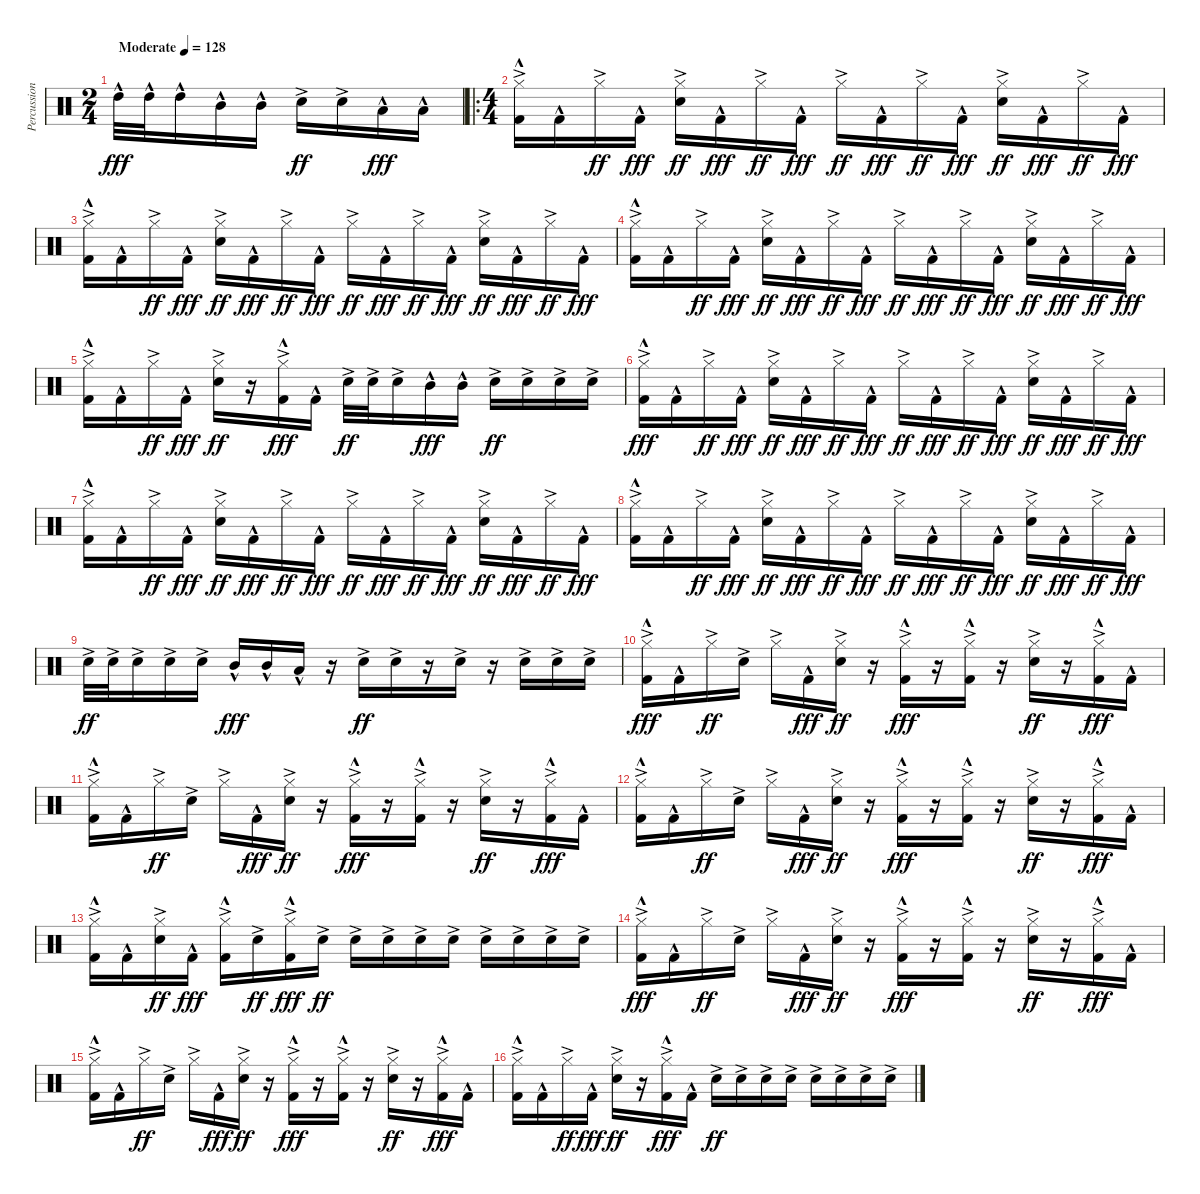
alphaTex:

\track ("Percussion" "Percussion") {instrument percussion}
\staff {score}
\articulation defaults
\ts (2 4)
\tempo (128 "Moderate")
\clef neutral
\ks c "High Tom (hit)"{hac}.32{dy fff} "High Tom (hit)"{hac}.32 "High Tom (hit)"{hac}.16 "Mid Tom (hit)"{hac}.16 "Mid Tom (hit)"{hac}.16 "Snare (hit) 2"{ac}.16{dy ff} "Snare (hit) 2"{ac}.16 "Low Tom (hit)"{hac}.16{dy fff} "Low Tom (hit)"{hac}.16
|
\ro
\ts (4 4)
("Hi-Hat (closed)"{ac} "Kick (hit) 2"{hac}).16 "Kick (hit) 2"{hac}.16 "Hi-Hat (closed)"{ac}.16{dy ff} "Kick (hit) 2"{hac}.16{dy fff} ("Hi-Hat (closed)"{ac} "Snare (hit) 2"{ac}).16{dy ff} "Kick (hit) 2"{hac}.16{dy fff} "Hi-Hat (closed)"{ac}.16{dy ff} "Kick (hit) 2"{hac}.16{dy fff} "Hi-Hat (closed)"{ac}.16{dy ff} "Kick (hit) 2"{hac}.16{dy fff} "Hi-Hat (closed)"{ac}.16{dy ff} "Kick (hit) 2"{hac}.16{dy fff} ("Hi-Hat (closed)"{ac} "Snare (hit) 2"{ac}).16{dy ff} "Kick (hit) 2"{hac}.16{dy fff} "Hi-Hat (closed)"{ac}.16{dy ff} "Kick (hit) 2"{hac}.16{dy fff} |
("Hi-Hat (closed)"{ac} "Kick (hit) 2"{hac}).16 "Kick (hit) 2"{hac}.16 "Hi-Hat (closed)"{ac}.16{dy ff} "Kick (hit) 2"{hac}.16{dy fff} ("Hi-Hat (closed)"{ac} "Snare (hit) 2"{ac}).16{dy ff} "Kick (hit) 2"{hac}.16{dy fff} "Hi-Hat (closed)"{ac}.16{dy ff} "Kick (hit) 2"{hac}.16{dy fff} "Hi-Hat (closed)"{ac}.16{dy ff} "Kick (hit) 2"{hac}.16{dy fff} "Hi-Hat (closed)"{ac}.16{dy ff} "Kick (hit) 2"{hac}.16{dy fff} ("Hi-Hat (closed)"{ac} "Snare (hit) 2"{ac}).16{dy ff} "Kick (hit) 2"{hac}.16{dy fff} "Hi-Hat (closed)"{ac}.16{dy ff} "Kick (hit) 2"{hac}.16{dy fff} |
("Hi-Hat (closed)"{ac} "Kick (hit) 2"{hac}).16 "Kick (hit) 2"{hac}.16 "Hi-Hat (closed)"{ac}.16{dy ff} "Kick (hit) 2"{hac}.16{dy fff} ("Hi-Hat (closed)"{ac} "Snare (hit) 2"{ac}).16{dy ff} "Kick (hit) 2"{hac}.16{dy fff} "Hi-Hat (closed)"{ac}.16{dy ff} "Kick (hit) 2"{hac}.16{dy fff} "Hi-Hat (closed)"{ac}.16{dy ff} "Kick (hit) 2"{hac}.16{dy fff} "Hi-Hat (closed)"{ac}.16{dy ff} "Kick (hit) 2"{hac}.16{dy fff} ("Hi-Hat (closed)"{ac} "Snare (hit) 2"{ac}).16{dy ff} "Kick (hit) 2"{hac}.16{dy fff} "Hi-Hat (closed)"{ac}.16{dy ff} "Kick (hit) 2"{hac}.16{dy fff} |
("Hi-Hat (closed)"{ac} "Kick (hit) 2"{hac}).16 "Kick (hit) 2"{hac}.16 "Hi-Hat (closed)"{ac}.16{dy ff} "Kick (hit) 2"{hac}.16{dy fff} ("Hi-Hat (closed)"{ac} "Snare (hit) 2"{ac}).16{dy ff} r.16 ("Hi-Hat (closed)"{ac} "Kick (hit) 2"{hac}).16{dy fff} "Kick (hit) 2"{hac}.16 "Snare (hit) 2"{ac}.32{dy ff} "Snare (hit) 2"{ac}.32 "Snare (hit) 2"{ac}.16 "Mid Tom (hit)"{hac}.16{dy fff} "Mid Tom (hit)"{hac}.16 "Snare (hit) 2"{ac}.16{dy ff} "Snare (hit) 2"{ac}.16 "Snare (hit) 2"{ac}.16 "Snare (hit) 2"{ac}.16 |
("Hi-Hat (closed)"{ac} "Kick (hit) 2"{hac}).16{dy fff} "Kick (hit) 2"{hac}.16 "Hi-Hat (closed)"{ac}.16{dy ff} "Kick (hit) 2"{hac}.16{dy fff} ("Hi-Hat (closed)"{ac} "Snare (hit) 2"{ac}).16{dy ff} "Kick (hit) 2"{hac}.16{dy fff} "Hi-Hat (closed)"{ac}.16{dy ff} "Kick (hit) 2"{hac}.16{dy fff} "Hi-Hat (closed)"{ac}.16{dy ff} "Kick (hit) 2"{hac}.16{dy fff} "Hi-Hat (closed)"{ac}.16{dy ff} "Kick (hit) 2"{hac}.16{dy fff} ("Hi-Hat (closed)"{ac} "Snare (hit) 2"{ac}).16{dy ff} "Kick (hit) 2"{hac}.16{dy fff} "Hi-Hat (closed)"{ac}.16{dy ff} "Kick (hit) 2"{hac}.16{dy fff} |
("Hi-Hat (closed)"{ac} "Kick (hit) 2"{hac}).16 "Kick (hit) 2"{hac}.16 "Hi-Hat (closed)"{ac}.16{dy ff} "Kick (hit) 2"{hac}.16{dy fff} ("Hi-Hat (closed)"{ac} "Snare (hit) 2"{ac}).16{dy ff} "Kick (hit) 2"{hac}.16{dy fff} "Hi-Hat (closed)"{ac}.16{dy ff} "Kick (hit) 2"{hac}.16{dy fff} "Hi-Hat (closed)"{ac}.16{dy ff} "Kick (hit) 2"{hac}.16{dy fff} "Hi-Hat (closed)"{ac}.16{dy ff} "Kick (hit) 2"{hac}.16{dy fff} ("Hi-Hat (closed)"{ac} "Snare (hit) 2"{ac}).16{dy ff} "Kick (hit) 2"{hac}.16{dy fff} "Hi-Hat (closed)"{ac}.16{dy ff} "Kick (hit) 2"{hac}.16{dy fff} |
("Hi-Hat (closed)"{ac} "Kick (hit) 2"{hac}).16 "Kick (hit) 2"{hac}.16 "Hi-Hat (closed)"{ac}.16{dy ff} "Kick (hit) 2"{hac}.16{dy fff} ("Hi-Hat (closed)"{ac} "Snare (hit) 2"{ac}).16{dy ff} "Kick (hit) 2"{hac}.16{dy fff} "Hi-Hat (closed)"{ac}.16{dy ff} "Kick (hit) 2"{hac}.16{dy fff} "Hi-Hat (closed)"{ac}.16{dy ff} "Kick (hit) 2"{hac}.16{dy fff} "Hi-Hat (closed)"{ac}.16{dy ff} "Kick (hit) 2"{hac}.16{dy fff} ("Hi-Hat (closed)"{ac} "Snare (hit) 2"{ac}).16{dy ff} "Kick (hit) 2"{hac}.16{dy fff} "Hi-Hat (closed)"{ac}.16{dy ff} "Kick (hit) 2"{hac}.16{dy fff} |
"Snare (hit) 2"{ac}.32{dy ff} "Snare (hit) 2"{ac}.32 "Snare (hit) 2"{ac}.16 "Snare (hit) 2"{ac}.16 "Snare (hit) 2"{ac}.16 "Mid Tom (hit)"{hac}.16{dy fff} "Mid Tom (hit)"{hac}.16 "Low Tom (hit)"{hac}.16 r.16 "Snare (hit) 2"{ac}.16{dy ff} "Snare (hit) 2"{ac}.16 r.16 "Snare (hit) 2"{ac}.16 r.16 "Snare (hit) 2"{ac}.16 "Snare (hit) 2"{ac}.16 "Snare (hit) 2"{ac}.16 |
("Hi-Hat (closed)"{ac} "Kick (hit) 2"{hac}).16{dy fff} "Kick (hit) 2"{hac}.16 "Hi-Hat (closed)"{ac}.16{dy ff} "Snare (hit) 2"{ac}.16 "Hi-Hat (closed)"{ac}.16 "Kick (hit) 2"{hac}.16{dy fff} ("Hi-Hat (closed)"{ac} "Snare (hit) 2"{ac}).16{dy ff} r.16 ("Hi-Hat (closed)"{ac} "Kick (hit) 2"{hac}).16{dy fff} r.16 ("Hi-Hat (closed)"{ac} "Kick (hit) 2"{hac}).16 r.16 ("Hi-Hat (closed)"{ac} "Snare (hit) 2"{ac}).16{dy ff} r.16 ("Hi-Hat (closed)"{ac} "Kick (hit) 2"{hac}).16{dy fff} "Kick (hit) 2"{hac}.16 |
("Hi-Hat (closed)"{ac} "Kick (hit) 2"{hac}).16 "Kick (hit) 2"{hac}.16 "Hi-Hat (closed)"{ac}.16{dy ff} "Snare (hit) 2"{ac}.16 "Hi-Hat (closed)"{ac}.16 "Kick (hit) 2"{hac}.16{dy fff} ("Hi-Hat (closed)"{ac} "Snare (hit) 2"{ac}).16{dy ff} r.16 ("Hi-Hat (closed)"{ac} "Kick (hit) 2"{hac}).16{dy fff} r.16 ("Hi-Hat (closed)"{ac} "Kick (hit) 2"{hac}).16 r.16 ("Hi-Hat (closed)"{ac} "Snare (hit) 2"{ac}).16{dy ff} r.16 ("Hi-Hat (closed)"{ac} "Kick (hit) 2"{hac}).16{dy fff} "Kick (hit) 2"{hac}.16 |
("Hi-Hat (closed)"{ac} "Kick (hit) 2"{hac}).16 "Kick (hit) 2"{hac}.16 "Hi-Hat (closed)"{ac}.16{dy ff} "Snare (hit) 2"{ac}.16 "Hi-Hat (closed)"{ac}.16 "Kick (hit) 2"{hac}.16{dy fff} ("Hi-Hat (closed)"{ac} "Snare (hit) 2"{ac}).16{dy ff} r.16 ("Hi-Hat (closed)"{ac} "Kick (hit) 2"{hac}).16{dy fff} r.16 ("Hi-Hat (closed)"{ac} "Kick (hit) 2"{hac}).16 r.16 ("Hi-Hat (closed)"{ac} "Snare (hit) 2"{ac}).16{dy ff} r.16 ("Hi-Hat (closed)"{ac} "Kick (hit) 2"{hac}).16{dy fff} "Kick (hit) 2"{hac}.16 |
("Hi-Hat (closed)"{ac} "Kick (hit) 2"{hac}).16 "Kick (hit) 2"{hac}.16 ("Hi-Hat (closed)"{ac} "Snare (hit) 2"{ac}).16{dy ff} "Kick (hit) 2"{hac}.16{dy fff} ("Hi-Hat (closed)"{ac} "Kick (hit) 2"{hac}).16 "Snare (hit) 2"{ac}.16{dy ff} ("Hi-Hat (closed)"{ac} "Kick (hit) 2"{hac}).16{dy fff} "Snare (hit) 2"{ac}.16{dy ff} "Snare (hit) 2"{ac}.16 "Snare (hit) 2"{ac}.16 "Snare (hit) 2"{ac}.16 "Snare (hit) 2"{ac}.16 "Snare (hit) 2"{ac}.16 "Snare (hit) 2"{ac}.16 "Snare (hit) 2"{ac}.16 "Snare (hit) 2"{ac}.16 |
("Hi-Hat (closed)"{ac} "Kick (hit) 2"{hac}).16{dy fff} "Kick (hit) 2"{hac}.16 "Hi-Hat (closed)"{ac}.16{dy ff} "Snare (hit) 2"{ac}.16 "Hi-Hat (closed)"{ac}.16 "Kick (hit) 2"{hac}.16{dy fff} ("Hi-Hat (closed)"{ac} "Snare (hit) 2"{ac}).16{dy ff} r.16 ("Hi-Hat (closed)"{ac} "Kick (hit) 2"{hac}).16{dy fff} r.16 ("Hi-Hat (closed)"{ac} "Kick (hit) 2"{hac}).16 r.16 ("Hi-Hat (closed)"{ac} "Snare (hit) 2"{ac}).16{dy ff} r.16 ("Hi-Hat (closed)"{ac} "Kick (hit) 2"{hac}).16{dy fff} "Kick (hit) 2"{hac}.16 |
("Hi-Hat (closed)"{ac} "Kick (hit) 2"{hac}).16 "Kick (hit) 2"{hac}.16 "Hi-Hat (closed)"{ac}.16{dy ff} "Snare (hit) 2"{ac}.16 "Hi-Hat (closed)"{ac}.16 "Kick (hit) 2"{hac}.16{dy fff} ("Hi-Hat (closed)"{ac} "Snare (hit) 2"{ac}).16{dy ff} r.16 ("Hi-Hat (closed)"{ac} "Kick (hit) 2"{hac}).16{dy fff} r.16 ("Hi-Hat (closed)"{ac} "Kick (hit) 2"{hac}).16 r.16 ("Hi-Hat (closed)"{ac} "Snare (hit) 2"{ac}).16{dy ff} r.16 ("Hi-Hat (closed)"{ac} "Kick (hit) 2"{hac}).16{dy fff} "Kick (hit) 2"{hac}.16 |
("Hi-Hat (closed)"{ac} "Kick (hit) 2"{hac}).16 "Kick (hit) 2"{hac}.16 "Hi-Hat (closed)"{ac}.16{dy ff} "Kick (hit) 2"{hac}.16{dy fff} ("Hi-Hat (closed)"{ac} "Snare (hit) 2"{ac}).16{dy ff} r.16 ("Hi-Hat (closed)"{ac} "Kick (hit) 2"{hac}).16{dy fff} "Kick (hit) 2"{hac}.16 "Snare (hit) 2"{ac}.16{dy ff} "Snare (hit) 2"{ac}.16 "Snare (hit) 2"{ac}.16 "Snare (hit) 2"{ac}.16 "Snare (hit) 2"{ac}.16 "Snare (hit) 2"{ac}.16 "Snare (hit) 2"{ac}.16 "Snare (hit) 2"{ac}.16
